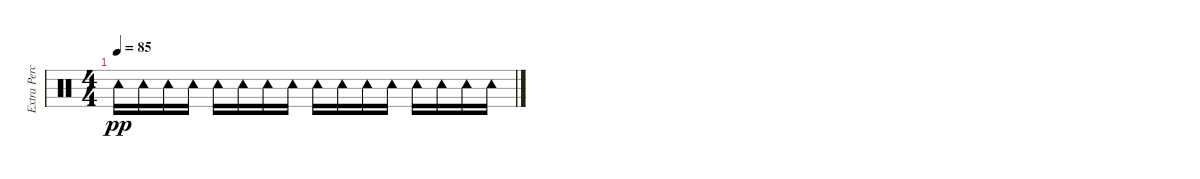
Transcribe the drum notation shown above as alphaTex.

\track ("Extra Percussion" "Extra Perc") {instrument percussion}
\staff {score}
\articulation defaults
\ts (4 4)
\tempo 85
\clef neutral
\ks c "Tambourine (hit)".16{dy pp} "Tambourine (hit)".16 "Tambourine (hit)".16 "Tambourine (hit)".16 "Tambourine (hit)".16 "Tambourine (hit)".16 "Tambourine (hit)".16 "Tambourine (hit)".16 "Tambourine (hit)".16 "Tambourine (hit)".16 "Tambourine (hit)".16 "Tambourine (hit)".16 "Tambourine (hit)".16 "Tambourine (hit)".16 "Tambourine (hit)".16 "Tambourine (hit)".16
